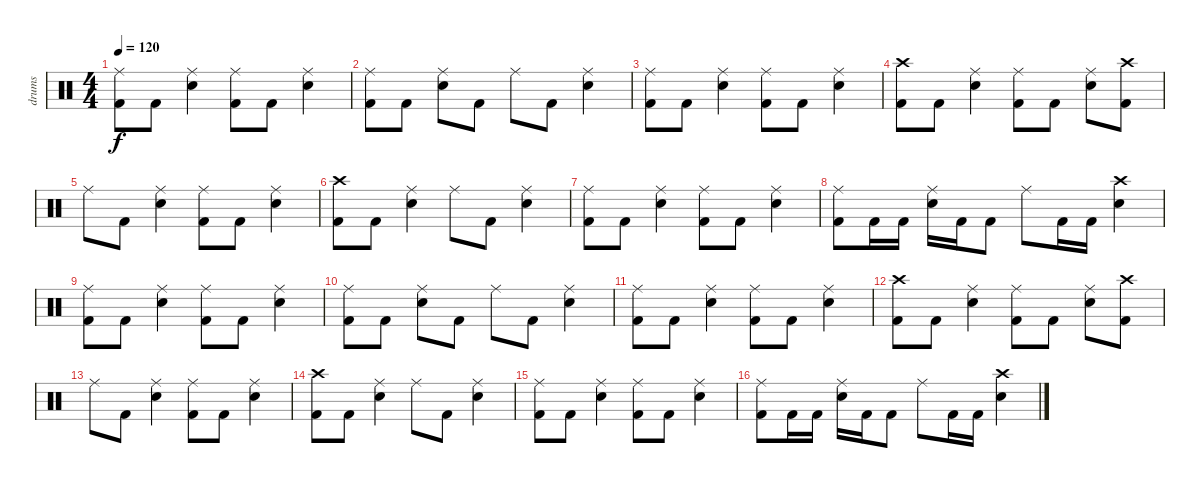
\track ("drums" "drums") {instrument percussion}
\staff {score}
\articulation defaults
\ts (4 4)
\tempo 120
\clef neutral
\ks c
("Ride (middle)" "Kick (hit) 2").8{dy f} "Kick (hit) 2".8 ("Ride (middle)" "Electric Snare (hit)").4 ("Ride (middle)" "Kick (hit) 2").8 "Kick (hit) 2".8 ("Ride (middle)" "Electric Snare (hit)").4 |
("Ride (middle)" "Kick (hit) 2").8 "Kick (hit) 2".8 ("Ride (middle)" "Electric Snare (hit)").8 "Kick (hit) 2".8 "Ride (middle)".8 "Kick (hit) 2".8 ("Ride (middle)" "Electric Snare (hit)").4 |
("Ride (middle)" "Kick (hit) 2").8 "Kick (hit) 2".8 ("Ride (middle)" "Electric Snare (hit)").4 ("Ride (middle)" "Kick (hit) 2").8 "Kick (hit) 2".8 ("Ride (middle)" "Electric Snare (hit)").4 |
("Crash high (hit)" "Kick (hit) 2").8 "Kick (hit) 2".8 ("Ride (middle)" "Electric Snare (hit)").4 ("Ride (middle)" "Kick (hit) 2").8 "Kick (hit) 2".8 ("Ride (middle)" "Electric Snare (hit)").8 ("Crash high (hit)" "Kick (hit) 2").8 |
"Ride (middle)".8 "Kick (hit) 2".8 ("Ride (middle)" "Electric Snare (hit)").4 ("Ride (middle)" "Kick (hit) 2").8 "Kick (hit) 2".8 ("Ride (middle)" "Electric Snare (hit)").4 |
("Crash high (hit)" "Kick (hit) 2").8 "Kick (hit) 2".8 ("Ride (middle)" "Electric Snare (hit)").4 "Ride (middle)".8 "Kick (hit) 2".8 ("Ride (middle)" "Electric Snare (hit)").4 |
("Ride (middle)" "Kick (hit) 2").8 "Kick (hit) 2".8 ("Ride (middle)" "Electric Snare (hit)").4 ("Ride (middle)" "Kick (hit) 2").8 "Kick (hit) 2".8 ("Ride (middle)" "Electric Snare (hit)").4 |
("Ride (middle)" "Kick (hit) 2").8 "Kick (hit) 2".16 "Kick (hit) 2".16 ("Ride (middle)" "Electric Snare (hit)").16 "Kick (hit) 2".16 "Kick (hit) 2".8 "Ride (middle)".8 "Kick (hit) 2".16 "Kick (hit) 2".16 ("Crash high (hit)" "Electric Snare (hit)").4 |
("Ride (middle)" "Kick (hit) 2").8 "Kick (hit) 2".8 ("Ride (middle)" "Electric Snare (hit)").4 ("Ride (middle)" "Kick (hit) 2").8 "Kick (hit) 2".8 ("Ride (middle)" "Electric Snare (hit)").4 |
("Ride (middle)" "Kick (hit) 2").8 "Kick (hit) 2".8 ("Ride (middle)" "Electric Snare (hit)").8 "Kick (hit) 2".8 "Ride (middle)".8 "Kick (hit) 2".8 ("Ride (middle)" "Electric Snare (hit)").4 |
("Ride (middle)" "Kick (hit) 2").8 "Kick (hit) 2".8 ("Ride (middle)" "Electric Snare (hit)").4 ("Ride (middle)" "Kick (hit) 2").8 "Kick (hit) 2".8 ("Ride (middle)" "Electric Snare (hit)").4 |
("Crash high (hit)" "Kick (hit) 2").8 "Kick (hit) 2".8 ("Ride (middle)" "Electric Snare (hit)").4 ("Ride (middle)" "Kick (hit) 2").8 "Kick (hit) 2".8 ("Ride (middle)" "Electric Snare (hit)").8 ("Crash high (hit)" "Kick (hit) 2").8 |
"Ride (middle)".8 "Kick (hit) 2".8 ("Ride (middle)" "Electric Snare (hit)").4 ("Ride (middle)" "Kick (hit) 2").8 "Kick (hit) 2".8 ("Ride (middle)" "Electric Snare (hit)").4 |
("Crash high (hit)" "Kick (hit) 2").8 "Kick (hit) 2".8 ("Ride (middle)" "Electric Snare (hit)").4 "Ride (middle)".8 "Kick (hit) 2".8 ("Ride (middle)" "Electric Snare (hit)").4 |
("Ride (middle)" "Kick (hit) 2").8 "Kick (hit) 2".8 ("Ride (middle)" "Electric Snare (hit)").4 ("Ride (middle)" "Kick (hit) 2").8 "Kick (hit) 2".8 ("Ride (middle)" "Electric Snare (hit)").4 |
("Ride (middle)" "Kick (hit) 2").8 "Kick (hit) 2".16 "Kick (hit) 2".16 ("Ride (middle)" "Electric Snare (hit)").16 "Kick (hit) 2".16 "Kick (hit) 2".8 "Ride (middle)".8 "Kick (hit) 2".16 "Kick (hit) 2".16 ("Crash high (hit)" "Electric Snare (hit)").4
